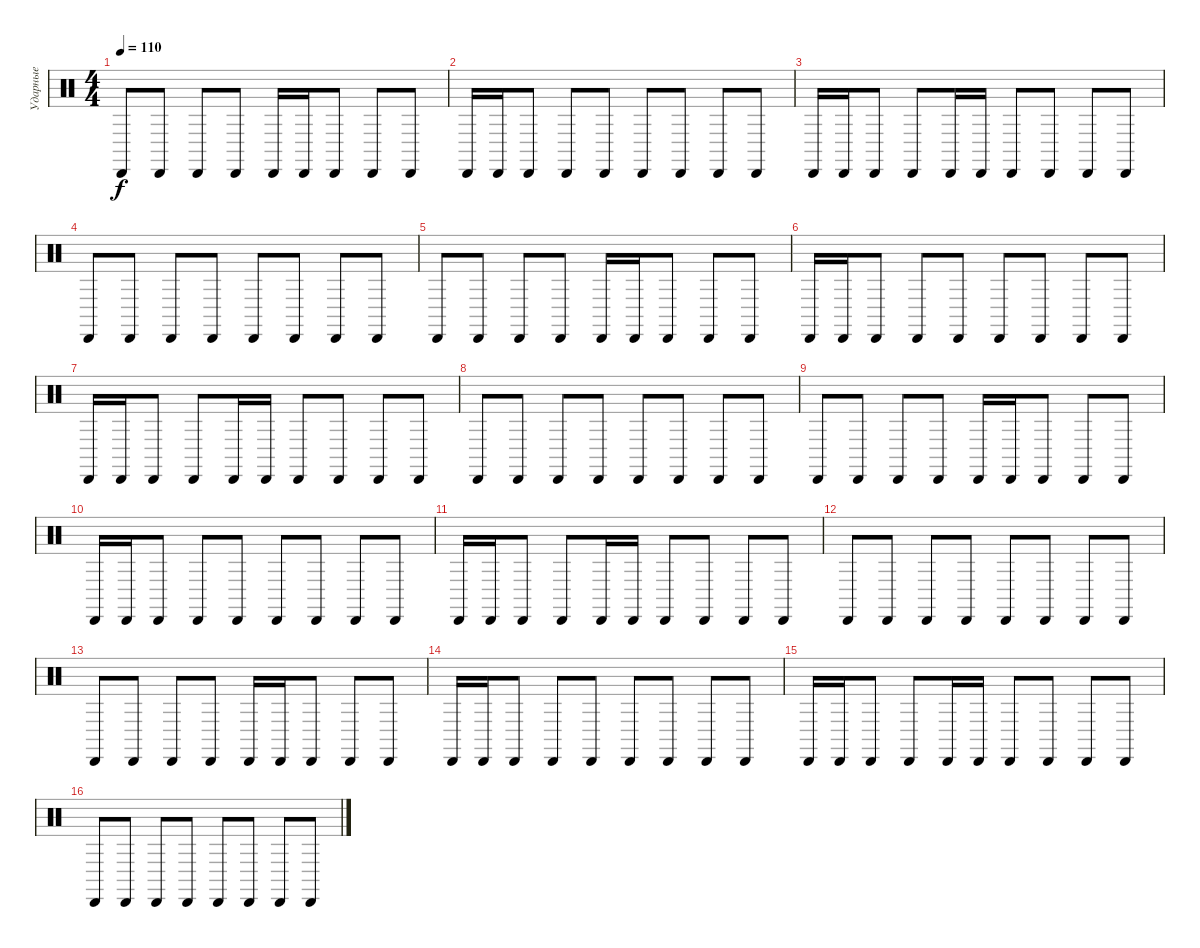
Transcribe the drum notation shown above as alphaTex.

\track ("Ударные" "Ударные") {instrument percussion}
\staff {score}
\articulation defaults
\ts (4 4)
\tempo 110
\clef neutral
\ks c "Cabasa (hit)".8{dy f} "Cabasa (hit)".8 "Cabasa (hit)".8 "Cabasa (hit)".8 "Cabasa (hit)".16 "Cabasa (hit)".16 "Cabasa (hit)".8 "Cabasa (hit)".8 "Cabasa (hit)".8
|
"Cabasa (hit)".16 "Cabasa (hit)".16 "Cabasa (hit)".8 "Cabasa (hit)".8 "Cabasa (hit)".8 "Cabasa (hit)".8 "Cabasa (hit)".8 "Cabasa (hit)".8 "Cabasa (hit)".8 |
"Cabasa (hit)".16 "Cabasa (hit)".16 "Cabasa (hit)".8 "Cabasa (hit)".8 "Cabasa (hit)".16 "Cabasa (hit)".16 "Cabasa (hit)".8 "Cabasa (hit)".8 "Cabasa (hit)".8 "Cabasa (hit)".8 |
"Cabasa (hit)".8 "Cabasa (hit)".8 "Cabasa (hit)".8 "Cabasa (hit)".8 "Cabasa (hit)".8 "Cabasa (hit)".8 "Cabasa (hit)".8 "Cabasa (hit)".8 |
"Cabasa (hit)".8 "Cabasa (hit)".8 "Cabasa (hit)".8 "Cabasa (hit)".8 "Cabasa (hit)".16 "Cabasa (hit)".16 "Cabasa (hit)".8 "Cabasa (hit)".8 "Cabasa (hit)".8 |
"Cabasa (hit)".16 "Cabasa (hit)".16 "Cabasa (hit)".8 "Cabasa (hit)".8 "Cabasa (hit)".8 "Cabasa (hit)".8 "Cabasa (hit)".8 "Cabasa (hit)".8 "Cabasa (hit)".8 |
"Cabasa (hit)".16 "Cabasa (hit)".16 "Cabasa (hit)".8 "Cabasa (hit)".8 "Cabasa (hit)".16 "Cabasa (hit)".16 "Cabasa (hit)".8 "Cabasa (hit)".8 "Cabasa (hit)".8 "Cabasa (hit)".8 |
"Cabasa (hit)".8 "Cabasa (hit)".8 "Cabasa (hit)".8 "Cabasa (hit)".8 "Cabasa (hit)".8 "Cabasa (hit)".8 "Cabasa (hit)".8 "Cabasa (hit)".8 |
"Cabasa (hit)".8 "Cabasa (hit)".8 "Cabasa (hit)".8 "Cabasa (hit)".8 "Cabasa (hit)".16 "Cabasa (hit)".16 "Cabasa (hit)".8 "Cabasa (hit)".8 "Cabasa (hit)".8 |
"Cabasa (hit)".16 "Cabasa (hit)".16 "Cabasa (hit)".8 "Cabasa (hit)".8 "Cabasa (hit)".8 "Cabasa (hit)".8 "Cabasa (hit)".8 "Cabasa (hit)".8 "Cabasa (hit)".8 |
"Cabasa (hit)".16 "Cabasa (hit)".16 "Cabasa (hit)".8 "Cabasa (hit)".8 "Cabasa (hit)".16 "Cabasa (hit)".16 "Cabasa (hit)".8 "Cabasa (hit)".8 "Cabasa (hit)".8 "Cabasa (hit)".8 |
"Cabasa (hit)".8 "Cabasa (hit)".8 "Cabasa (hit)".8 "Cabasa (hit)".8 "Cabasa (hit)".8 "Cabasa (hit)".8 "Cabasa (hit)".8 "Cabasa (hit)".8 |
"Cabasa (hit)".8 "Cabasa (hit)".8 "Cabasa (hit)".8 "Cabasa (hit)".8 "Cabasa (hit)".16 "Cabasa (hit)".16 "Cabasa (hit)".8 "Cabasa (hit)".8 "Cabasa (hit)".8 |
"Cabasa (hit)".16 "Cabasa (hit)".16 "Cabasa (hit)".8 "Cabasa (hit)".8 "Cabasa (hit)".8 "Cabasa (hit)".8 "Cabasa (hit)".8 "Cabasa (hit)".8 "Cabasa (hit)".8 |
"Cabasa (hit)".16 "Cabasa (hit)".16 "Cabasa (hit)".8 "Cabasa (hit)".8 "Cabasa (hit)".16 "Cabasa (hit)".16 "Cabasa (hit)".8 "Cabasa (hit)".8 "Cabasa (hit)".8 "Cabasa (hit)".8 |
"Cabasa (hit)".8 "Cabasa (hit)".8 "Cabasa (hit)".8 "Cabasa (hit)".8 "Cabasa (hit)".8 "Cabasa (hit)".8 "Cabasa (hit)".8 "Cabasa (hit)".8
